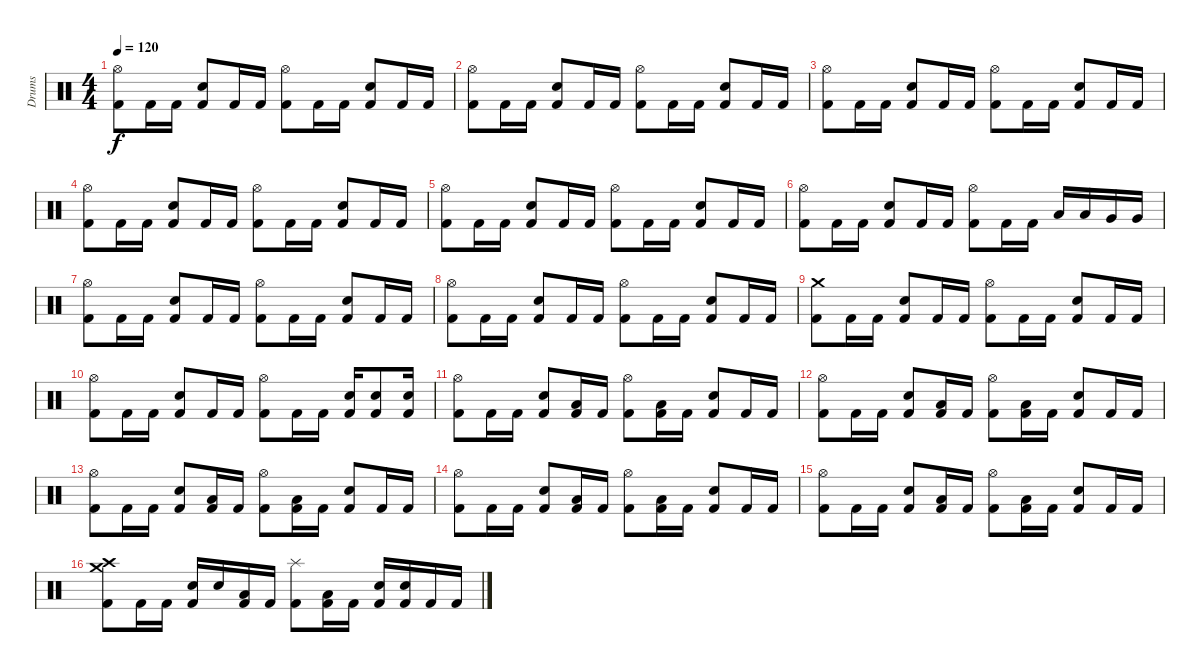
\track ("Drums" "Drums") {instrument percussion}
\staff {score}
\articulation defaults
\ts (4 4)
\tempo 120
\clef neutral
\ks c
("Hi-Hat (open)" "Kick (hit) 2").8{dy f} "Kick (hit) 2".16 "Kick (hit) 2".16 ("Electric Snare (hit)" "Kick (hit) 2").8 "Kick (hit) 2".16 "Kick (hit) 2".16 ("Hi-Hat (open)" "Kick (hit) 2").8 "Kick (hit) 2".16 "Kick (hit) 2".16 ("Electric Snare (hit)" "Kick (hit) 2").8 "Kick (hit) 2".16 "Kick (hit) 2".16 |
("Hi-Hat (open)" "Kick (hit) 2").8 "Kick (hit) 2".16 "Kick (hit) 2".16 ("Electric Snare (hit)" "Kick (hit) 2").8 "Kick (hit) 2".16 "Kick (hit) 2".16 ("Hi-Hat (open)" "Kick (hit) 2").8 "Kick (hit) 2".16 "Kick (hit) 2".16 ("Electric Snare (hit)" "Kick (hit) 2").8 "Kick (hit) 2".16 "Kick (hit) 2".16 |
("Hi-Hat (open)" "Kick (hit) 2").8 "Kick (hit) 2".16 "Kick (hit) 2".16 ("Electric Snare (hit)" "Kick (hit) 2").8 "Kick (hit) 2".16 "Kick (hit) 2".16 ("Hi-Hat (open)" "Kick (hit) 2").8 "Kick (hit) 2".16 "Kick (hit) 2".16 ("Electric Snare (hit)" "Kick (hit) 2").8 "Kick (hit) 2".16 "Kick (hit) 2".16 |
("Hi-Hat (open)" "Kick (hit) 2").8 "Kick (hit) 2".16 "Kick (hit) 2".16 ("Electric Snare (hit)" "Kick (hit) 2").8 "Kick (hit) 2".16 "Kick (hit) 2".16 ("Hi-Hat (open)" "Kick (hit) 2").8 "Kick (hit) 2".16 "Kick (hit) 2".16 ("Electric Snare (hit)" "Kick (hit) 2").8 "Kick (hit) 2".16 "Kick (hit) 2".16 |
("Hi-Hat (open)" "Kick (hit) 2").8 "Kick (hit) 2".16 "Kick (hit) 2".16 ("Electric Snare (hit)" "Kick (hit) 2").8 "Kick (hit) 2".16 "Kick (hit) 2".16 ("Hi-Hat (open)" "Kick (hit) 2").8 "Kick (hit) 2".16 "Kick (hit) 2".16 ("Electric Snare (hit)" "Kick (hit) 2").8 "Kick (hit) 2".16 "Kick (hit) 2".16 |
("Hi-Hat (open)" "Kick (hit) 2").8 "Kick (hit) 2".16 "Kick (hit) 2".16 ("Electric Snare (hit)" "Kick (hit) 2").8 "Kick (hit) 2".16 "Kick (hit) 2".16 ("Hi-Hat (open)" "Kick (hit) 2").8 "Kick (hit) 2".16 "Kick (hit) 2".16 "Low Tom (hit)".16 "Low Tom (hit)".16 "Very Low Tom (hit)".16 "Very Low Tom (hit)".16 |
("Hi-Hat (open)" "Kick (hit) 2").8 "Kick (hit) 2".16 "Kick (hit) 2".16 ("Electric Snare (hit)" "Kick (hit) 2").8 "Kick (hit) 2".16 "Kick (hit) 2".16 ("Hi-Hat (open)" "Kick (hit) 2").8 "Kick (hit) 2".16 "Kick (hit) 2".16 ("Electric Snare (hit)" "Kick (hit) 2").8 "Kick (hit) 2".16 "Kick (hit) 2".16 |
("Hi-Hat (open)" "Kick (hit) 2").8 "Kick (hit) 2".16 "Kick (hit) 2".16 ("Electric Snare (hit)" "Kick (hit) 2").8 "Kick (hit) 2".16 "Kick (hit) 2".16 ("Hi-Hat (open)" "Kick (hit) 2").8 "Kick (hit) 2".16 "Kick (hit) 2".16 ("Electric Snare (hit)" "Kick (hit) 2").8 "Kick (hit) 2".16 "Kick (hit) 2".16 |
("Crash medium (hit)" "Kick (hit) 2").8{volume 11} "Kick (hit) 2".16 "Kick (hit) 2".16 ("Electric Snare (hit)" "Kick (hit) 2").8 "Kick (hit) 2".16 "Kick (hit) 2".16 ("Hi-Hat (open)" "Kick (hit) 2").8 "Kick (hit) 2".16 "Kick (hit) 2".16 ("Electric Snare (hit)" "Kick (hit) 2").8 "Kick (hit) 2".16 "Kick (hit) 2".16 |
("Hi-Hat (open)" "Kick (hit) 2").8 "Kick (hit) 2".16 "Kick (hit) 2".16 ("Electric Snare (hit)" "Kick (hit) 2").8 "Kick (hit) 2".16 "Kick (hit) 2".16 ("Hi-Hat (open)" "Kick (hit) 2").8 "Kick (hit) 2".16 "Kick (hit) 2".16 ("Electric Snare (hit)" "Kick (hit) 2").16 ("Electric Snare (hit)" "Kick (hit) 2").8 ("Electric Snare (hit)" "Kick (hit) 2").16 |
("Hi-Hat (open)" "Kick (hit) 2").8 "Kick (hit) 2".16 "Kick (hit) 2".16 ("Electric Snare (hit)" "Kick (hit) 2").8 ("Low Tom (hit)" "Kick (hit) 2").16 "Kick (hit) 2".16 ("Hi-Hat (open)" "Kick (hit) 2").8 ("Low Tom (hit)" "Kick (hit) 2").16 "Kick (hit) 2".16 ("Electric Snare (hit)" "Kick (hit) 2").8 "Kick (hit) 2".16 "Kick (hit) 2".16 |
("Hi-Hat (open)" "Kick (hit) 2").8 "Kick (hit) 2".16 "Kick (hit) 2".16 ("Electric Snare (hit)" "Kick (hit) 2").8 ("Low Tom (hit)" "Kick (hit) 2").16 "Kick (hit) 2".16 ("Hi-Hat (open)" "Kick (hit) 2").8 ("Low Tom (hit)" "Kick (hit) 2").16 "Kick (hit) 2".16 ("Electric Snare (hit)" "Kick (hit) 2").8 "Kick (hit) 2".16 "Kick (hit) 2".16 |
("Hi-Hat (open)" "Kick (hit) 2").8 "Kick (hit) 2".16 "Kick (hit) 2".16 ("Electric Snare (hit)" "Kick (hit) 2").8 ("Low Tom (hit)" "Kick (hit) 2").16 "Kick (hit) 2".16 ("Hi-Hat (open)" "Kick (hit) 2").8 ("Low Tom (hit)" "Kick (hit) 2").16 "Kick (hit) 2".16 ("Electric Snare (hit)" "Kick (hit) 2").8 "Kick (hit) 2".16 "Kick (hit) 2".16 |
("Hi-Hat (open)" "Kick (hit) 2").8 "Kick (hit) 2".16 "Kick (hit) 2".16 ("Electric Snare (hit)" "Kick (hit) 2").8 ("Low Tom (hit)" "Kick (hit) 2").16 "Kick (hit) 2".16 ("Hi-Hat (open)" "Kick (hit) 2").8 ("Low Tom (hit)" "Kick (hit) 2").16 "Kick (hit) 2".16 ("Electric Snare (hit)" "Kick (hit) 2").8 "Kick (hit) 2".16 "Kick (hit) 2".16 |
("Hi-Hat (open)" "Kick (hit) 2").8 "Kick (hit) 2".16 "Kick (hit) 2".16 ("Electric Snare (hit)" "Kick (hit) 2").8 ("Low Tom (hit)" "Kick (hit) 2").16 "Kick (hit) 2".16 ("Hi-Hat (open)" "Kick (hit) 2").8 ("Low Tom (hit)" "Kick (hit) 2").16 "Kick (hit) 2".16 ("Electric Snare (hit)" "Kick (hit) 2").8 "Kick (hit) 2".16 "Kick (hit) 2".16 |
("Crash medium (hit)" "Crash high (hit)" "Kick (hit) 2").8 "Kick (hit) 2".16 "Kick (hit) 2".16 ("Electric Snare (hit)" "Kick (hit) 2").16 "Electric Snare (hit)".16 ("Low Tom (hit)" "Kick (hit) 2").16 "Kick (hit) 2".16 ("Splash (hit)" "Kick (hit) 2").8 ("Low Tom (hit)" "Kick (hit) 2").16 "Kick (hit) 2".16 ("Electric Snare (hit)" "Kick (hit) 2").16 ("Electric Snare (hit)" "Kick (hit) 2").16 "Kick (hit) 2".16 "Kick (hit) 2".16
